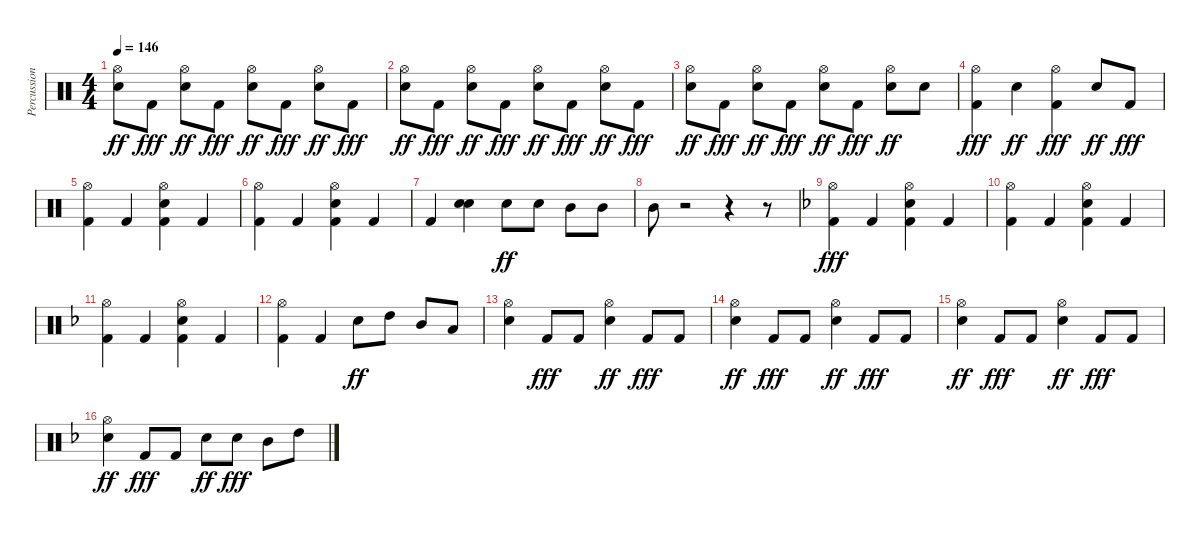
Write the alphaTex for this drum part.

\track ("Percussions" "Percussion") {instrument percussion}
\staff {score}
\articulation defaults
\ts (4 4)
\tempo 146
\clef neutral
\ks c
("Hi-Hat (open)" "Snare (hit) 2").8{dy ff} "Kick (hit) 2".8{dy fff} ("Hi-Hat (open)" "Snare (hit) 2").8{dy ff} "Kick (hit) 2".8{dy fff} ("Hi-Hat (open)" "Snare (hit) 2").8{dy ff} "Kick (hit) 2".8{dy fff} ("Hi-Hat (open)" "Snare (hit) 2").8{dy ff} "Kick (hit) 2".8{dy fff} |
("Hi-Hat (open)" "Snare (hit) 2").8{dy ff} "Kick (hit) 2".8{dy fff} ("Hi-Hat (open)" "Snare (hit) 2").8{dy ff} "Kick (hit) 2".8{dy fff} ("Hi-Hat (open)" "Snare (hit) 2").8{dy ff} "Kick (hit) 2".8{dy fff} ("Hi-Hat (open)" "Snare (hit) 2").8{dy ff} "Kick (hit) 2".8{dy fff} |
("Hi-Hat (open)" "Snare (hit) 2").8{dy ff} "Kick (hit) 2".8{dy fff} ("Hi-Hat (open)" "Snare (hit) 2").8{dy ff} "Kick (hit) 2".8{dy fff} ("Hi-Hat (open)" "Snare (hit) 2").8{dy ff} "Kick (hit) 2".8{dy fff} ("Hi-Hat (open)" "Snare (hit) 2").8{dy ff} "Snare (hit) 2".8 |
("Hi-Hat (open)" "Kick (hit) 2").4{dy fff} "Snare (hit) 2".4{dy ff} ("Hi-Hat (open)" "Kick (hit) 2").4{dy fff} "Snare (hit) 2".8{dy ff} "Kick (hit) 2".8{dy fff} |
("Hi-Hat (open)" "Kick (hit) 2").4 "Kick (hit) 2".4 ("Hi-Hat (open)" "Snare (hit) 2" "Kick (hit) 2").4 "Kick (hit) 2".4 |
("Hi-Hat (open)" "Kick (hit) 2").4 "Kick (hit) 2".4 ("Hi-Hat (open)" "Snare (hit) 2" "Kick (hit) 2").4 "Kick (hit) 2".4 |
"Kick (hit) 2".4 ("Snare (hit) 2" "Snare (hit) 2").4{bd 480} "Snare (hit) 2".8{dy ff} "Snare (hit) 2".8 "Mid Tom (hit)".8 "Mid Tom (hit)".8 |
"Mid Tom (hit)".8 r.2 r.4 r.8 |
\ks f
("Hi-Hat (open)" "Kick (hit) 2").4{dy fff} "Kick (hit) 2".4 ("Hi-Hat (open)" "Snare (hit) 2" "Kick (hit) 2").4 "Kick (hit) 2".4 |
("Hi-Hat (open)" "Kick (hit) 2").4 "Kick (hit) 2".4 ("Hi-Hat (open)" "Snare (hit) 2" "Kick (hit) 2").4 "Kick (hit) 2".4 |
("Hi-Hat (open)" "Kick (hit) 2").4 "Kick (hit) 2".4 ("Hi-Hat (open)" "Snare (hit) 2" "Kick (hit) 2").4 "Kick (hit) 2".4 |
("Hi-Hat (open)" "Kick (hit) 2").4 "Kick (hit) 2".4 "Snare (hit) 2".8{dy ff} "High Tom (hit)".8 "Mid Tom (hit)".8 "Low Tom (hit)".8 |
("Hi-Hat (open)" "Snare (hit) 2").4 "Kick (hit) 2".8{dy fff} "Kick (hit) 2".8 ("Hi-Hat (open)" "Snare (hit) 2").4{dy ff} "Kick (hit) 2".8{dy fff} "Kick (hit) 2".8 |
("Hi-Hat (open)" "Snare (hit) 2").4{dy ff} "Kick (hit) 2".8{dy fff} "Kick (hit) 2".8 ("Hi-Hat (open)" "Snare (hit) 2").4{dy ff} "Kick (hit) 2".8{dy fff} "Kick (hit) 2".8 |
("Hi-Hat (open)" "Snare (hit) 2").4{dy ff} "Kick (hit) 2".8{dy fff} "Kick (hit) 2".8 ("Hi-Hat (open)" "Snare (hit) 2").4{dy ff} "Kick (hit) 2".8{dy fff} "Kick (hit) 2".8 |
("Hi-Hat (open)" "Snare (hit) 2").4{dy ff} "Kick (hit) 2".8{dy fff} "Kick (hit) 2".8 "Snare (hit) 2".8{dy ff} "Snare (hit) 2".8{dy fff} "Mid Tom (hit)".8 "High Tom (hit)".8
